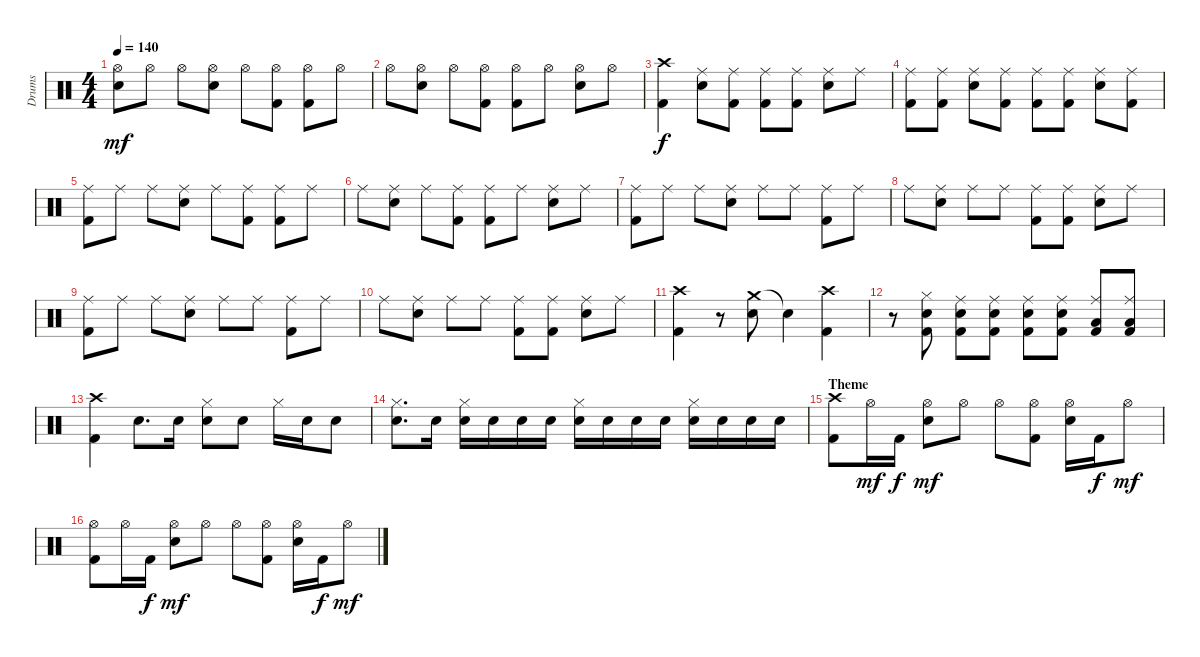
\track ("Drums" "Drums") {instrument percussion}
\staff {score}
\articulation defaults
\ts (4 4)
\tempo 140
\clef neutral
\ks c
("Hi-Hat (open)" "Electric Snare (hit)").8{dy mf} "Hi-Hat (open)".8 "Hi-Hat (open)".8 ("Hi-Hat (open)" "Electric Snare (hit)").8 "Hi-Hat (open)".8 ("Hi-Hat (open)" "Kick (hit) 2").8 ("Hi-Hat (open)" "Kick (hit) 2").8 "Hi-Hat (open)".8 |
"Hi-Hat (open)".8 ("Hi-Hat (open)" "Electric Snare (hit)").8 "Hi-Hat (open)".8 ("Hi-Hat (open)" "Kick (hit) 2").8 ("Hi-Hat (open)" "Kick (hit) 2").8 "Hi-Hat (open)".8 ("Hi-Hat (open)" "Electric Snare (hit)").8 "Hi-Hat (open)".8 |
("Crash high (hit)" "Kick (hit) 2").4{dy f} ("Ride (middle)" "Electric Snare (hit)").8 ("Ride (middle)" "Kick (hit) 2").8 ("Ride (middle)" "Kick (hit) 2").8 ("Ride (middle)" "Kick (hit) 2").8 ("Ride (middle)" "Electric Snare (hit)").8 "Ride (middle)".8 |
("Ride (middle)" "Kick (hit) 2").8 ("Ride (middle)" "Kick (hit) 2").8 ("Ride (middle)" "Electric Snare (hit)").8 ("Ride (middle)" "Kick (hit) 2").8 ("Ride (middle)" "Kick (hit) 2").8 ("Ride (middle)" "Kick (hit) 2").8 ("Ride (middle)" "Electric Snare (hit)").8 ("Ride (middle)" "Kick (hit) 2").8 |
("Ride (middle)" "Kick (hit) 2").8 "Ride (middle)".8 "Ride (middle)".8 ("Ride (middle)" "Electric Snare (hit)").8 "Ride (middle)".8 ("Ride (middle)" "Kick (hit) 2").8 ("Ride (middle)" "Kick (hit) 2").8 "Ride (middle)".8 |
"Ride (middle)".8 ("Ride (middle)" "Electric Snare (hit)").8 "Ride (middle)".8 ("Ride (middle)" "Kick (hit) 2").8 ("Ride (middle)" "Kick (hit) 2").8 "Ride (middle)".8 ("Ride (middle)" "Electric Snare (hit)").8 "Ride (middle)".8 |
("Ride (middle)" "Kick (hit) 2").8 "Ride (middle)".8 "Ride (middle)".8 ("Ride (middle)" "Electric Snare (hit)").8 "Ride (middle)".8 "Ride (middle)".8 ("Ride (middle)" "Kick (hit) 2").8 "Ride (middle)".8 |
"Ride (middle)".8 ("Ride (middle)" "Electric Snare (hit)").8 "Ride (middle)".8 "Ride (middle)".8 ("Ride (middle)" "Kick (hit) 2").8 ("Ride (middle)" "Kick (hit) 2").8 ("Ride (middle)" "Electric Snare (hit)").8 "Ride (middle)".8 |
("Ride (middle)" "Kick (hit) 2").8 "Ride (middle)".8 "Ride (middle)".8 ("Ride (middle)" "Electric Snare (hit)").8 "Ride (middle)".8 "Ride (middle)".8 ("Ride (middle)" "Kick (hit) 2").8 "Ride (middle)".8 |
"Ride (middle)".8 ("Ride (middle)" "Electric Snare (hit)").8 "Ride (middle)".8 "Ride (middle)".8 ("Ride (middle)" "Kick (hit) 2").8 ("Ride (middle)" "Kick (hit) 2").8 ("Ride (middle)" "Electric Snare (hit)").8 "Ride (middle)".8 |
("Crash high (hit)" "Kick (hit) 2").4 r.8 ("Crash medium (hit)" "Electric Snare (hit)").8 "Snare (hit)"{t}.4 ("Crash high (hit)" "Kick (hit) 2").4 |
r.8 ("Hi-Hat (closed)" "Electric Snare (hit)" "Kick (hit) 2").8 ("Ride (middle)" "Electric Snare (hit)" "Kick (hit) 2").8 ("Ride (middle)" "Electric Snare (hit)" "Kick (hit) 2").8 ("Ride (middle)" "Electric Snare (hit)" "Kick (hit) 2").8 ("Ride (middle)" "Electric Snare (hit)" "Kick (hit) 2").8 ("Ride (middle)" "Low Tom (hit)" "Kick (hit) 2").8 ("Ride (middle)" "Low Tom (hit)" "Kick (hit) 2").8 |
("Crash high (hit)" "Kick (hit) 2").4 "Electric Snare (hit)".8{d} "Electric Snare (hit)".16 ("Hi-Hat (closed)" "Electric Snare (hit)").8 "Electric Snare (hit)".8 "Hi-Hat (closed)".16 "Electric Snare (hit)".16 "Electric Snare (hit)".8 |
("Hi-Hat (closed)" "Electric Snare (hit)").8{d} "Electric Snare (hit)".16 ("Hi-Hat (closed)" "Electric Snare (hit)").16 "Electric Snare (hit)".16 "Electric Snare (hit)".16 "Electric Snare (hit)".16 ("Hi-Hat (closed)" "Electric Snare (hit)").16 "Electric Snare (hit)".16 "Electric Snare (hit)".16 "Electric Snare (hit)".16 ("Hi-Hat (closed)" "Electric Snare (hit)").16 "Electric Snare (hit)".16 "Electric Snare (hit)".16 "Electric Snare (hit)".16 |
\section ("" "Theme")
("Crash high (hit)" "Kick (hit) 2").8 "Hi-Hat (open)".16{dy mf} "Kick (hit) 2".16{dy f} ("Hi-Hat (open)" "Electric Snare (hit)").8{dy mf} "Hi-Hat (open)".8 "Hi-Hat (open)".8 ("Hi-Hat (open)" "Kick (hit) 2").8 ("Hi-Hat (open)" "Electric Snare (hit)").16 "Kick (hit) 2".16{dy f} "Hi-Hat (open)".8{dy mf} |
("Hi-Hat (open)" "Kick (hit) 2").8 "Hi-Hat (open)".16 "Kick (hit) 2".16{dy f} ("Hi-Hat (open)" "Electric Snare (hit)").8{dy mf} "Hi-Hat (open)".8 "Hi-Hat (open)".8 ("Hi-Hat (open)" "Kick (hit) 2").8 ("Hi-Hat (open)" "Electric Snare (hit)").16 "Kick (hit) 2".16{dy f} "Hi-Hat (open)".8{dy mf}
